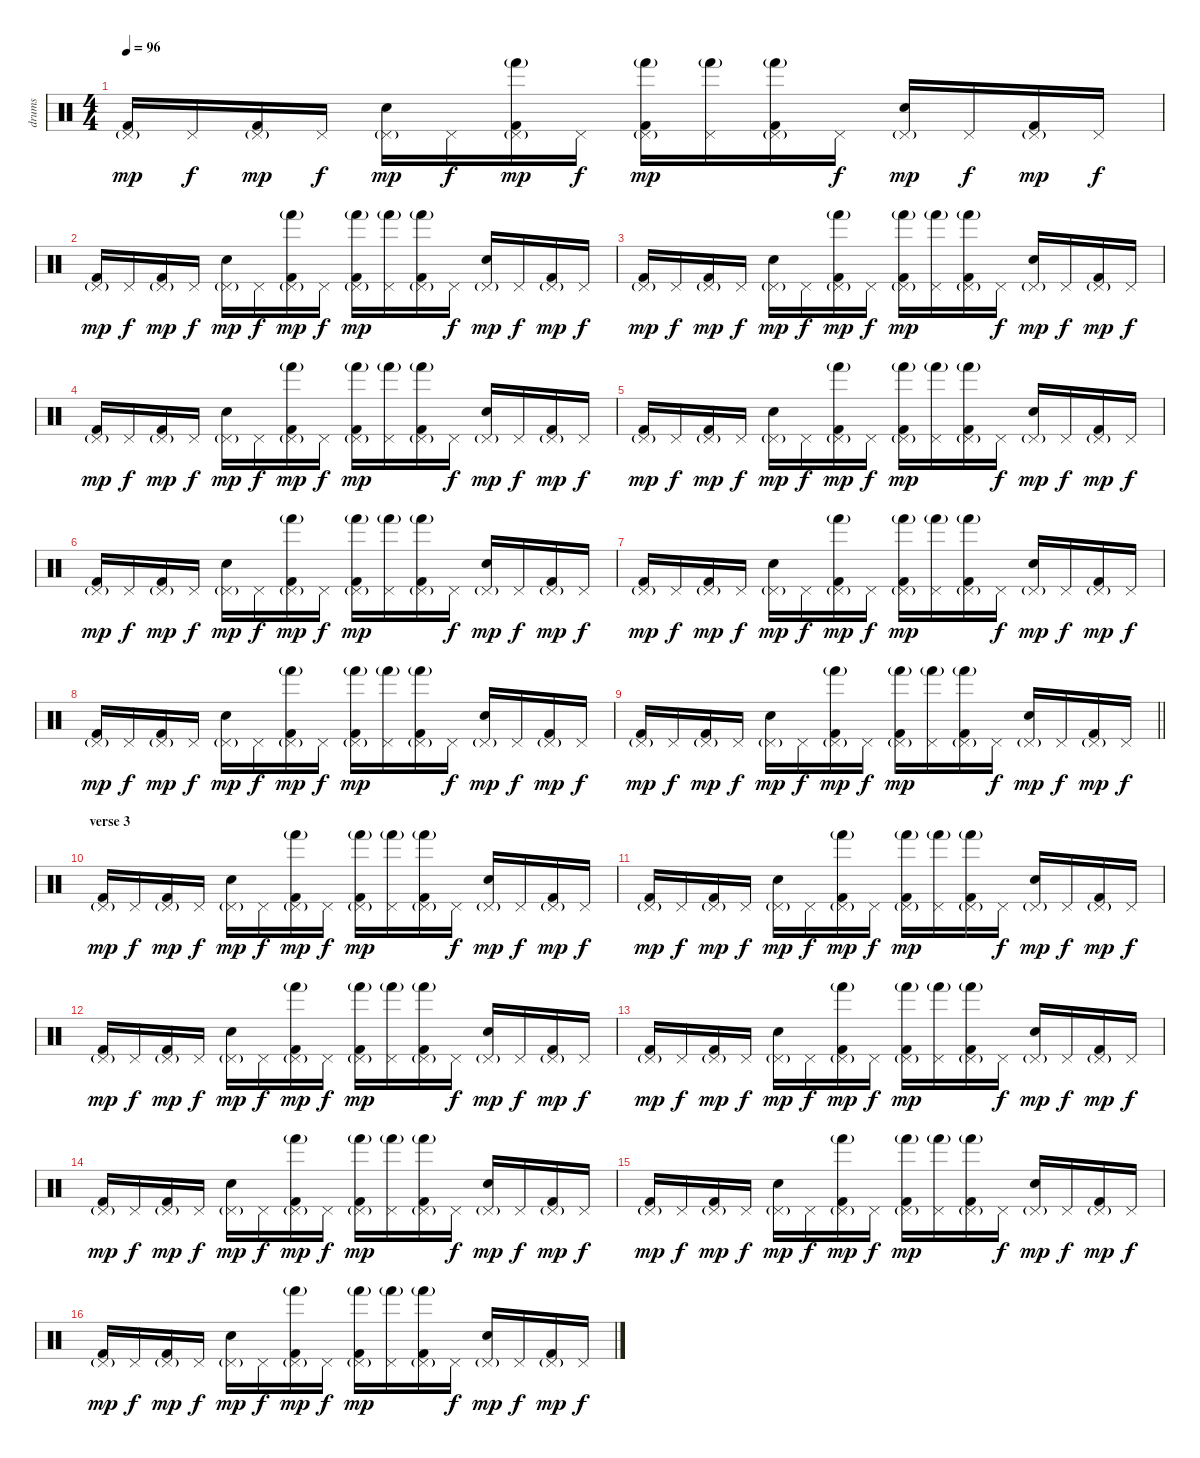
\track ("drums" "drums") {instrument percussion}
\staff {score}
\articulation defaults
\ts (4 4)
\tempo 96
\clef neutral
\ks c
("Kick (hit) 2" "Pedal Hi-Hat (hit)"{g}).16{dy mp} "Pedal Hi-Hat (hit)".16{dy f} ("Kick (hit) 2" "Pedal Hi-Hat (hit)"{g}).16{dy mp} "Pedal Hi-Hat (hit)".16{dy f} ("Snare (hit) 2" "Pedal Hi-Hat (hit)"{g}).16{dy mp} "Pedal Hi-Hat (hit)".16{dy f} ("Kick (hit) 2" "Hand (hit)"{g} "Pedal Hi-Hat (hit)"{g}).16{dy mp} "Pedal Hi-Hat (hit)".16{dy f} ("Kick (hit) 2" "Hand (hit)"{g} "Pedal Hi-Hat (hit)"{g}).16{dy mp} ("Hand (hit)"{g} "Pedal Hi-Hat (hit)").16 ("Kick (hit) 2" "Hand (hit)"{g} "Pedal Hi-Hat (hit)"{g}).16 "Pedal Hi-Hat (hit)".16{dy f} ("Snare (hit) 2" "Pedal Hi-Hat (hit)"{g}).16{dy mp} "Pedal Hi-Hat (hit)".16{dy f} ("Kick (hit) 2" "Pedal Hi-Hat (hit)"{g}).16{dy mp} "Pedal Hi-Hat (hit)".16{dy f} |
("Kick (hit) 2" "Pedal Hi-Hat (hit)"{g}).16{dy mp} "Pedal Hi-Hat (hit)".16{dy f} ("Kick (hit) 2" "Pedal Hi-Hat (hit)"{g}).16{dy mp} "Pedal Hi-Hat (hit)".16{dy f} ("Snare (hit) 2" "Pedal Hi-Hat (hit)"{g}).16{dy mp} "Pedal Hi-Hat (hit)".16{dy f} ("Kick (hit) 2" "Hand (hit)"{g} "Pedal Hi-Hat (hit)"{g}).16{dy mp} "Pedal Hi-Hat (hit)".16{dy f} ("Kick (hit) 2" "Hand (hit)"{g} "Pedal Hi-Hat (hit)"{g}).16{dy mp} ("Hand (hit)"{g} "Pedal Hi-Hat (hit)").16 ("Kick (hit) 2" "Hand (hit)"{g} "Pedal Hi-Hat (hit)"{g}).16 "Pedal Hi-Hat (hit)".16{dy f} ("Snare (hit) 2" "Pedal Hi-Hat (hit)"{g}).16{dy mp} "Pedal Hi-Hat (hit)".16{dy f} ("Kick (hit) 2" "Pedal Hi-Hat (hit)"{g}).16{dy mp} "Pedal Hi-Hat (hit)".16{dy f} |
("Kick (hit) 2" "Pedal Hi-Hat (hit)"{g}).16{dy mp} "Pedal Hi-Hat (hit)".16{dy f} ("Kick (hit) 2" "Pedal Hi-Hat (hit)"{g}).16{dy mp} "Pedal Hi-Hat (hit)".16{dy f} ("Snare (hit) 2" "Pedal Hi-Hat (hit)"{g}).16{dy mp} "Pedal Hi-Hat (hit)".16{dy f} ("Kick (hit) 2" "Hand (hit)"{g} "Pedal Hi-Hat (hit)"{g}).16{dy mp} "Pedal Hi-Hat (hit)".16{dy f} ("Kick (hit) 2" "Hand (hit)"{g} "Pedal Hi-Hat (hit)"{g}).16{dy mp} ("Hand (hit)"{g} "Pedal Hi-Hat (hit)").16 ("Kick (hit) 2" "Hand (hit)"{g} "Pedal Hi-Hat (hit)"{g}).16 "Pedal Hi-Hat (hit)".16{dy f} ("Snare (hit) 2" "Pedal Hi-Hat (hit)"{g}).16{dy mp} "Pedal Hi-Hat (hit)".16{dy f} ("Kick (hit) 2" "Pedal Hi-Hat (hit)"{g}).16{dy mp} "Pedal Hi-Hat (hit)".16{dy f} |
("Kick (hit) 2" "Pedal Hi-Hat (hit)"{g}).16{dy mp} "Pedal Hi-Hat (hit)".16{dy f} ("Kick (hit) 2" "Pedal Hi-Hat (hit)"{g}).16{dy mp} "Pedal Hi-Hat (hit)".16{dy f} ("Snare (hit) 2" "Pedal Hi-Hat (hit)"{g}).16{dy mp} "Pedal Hi-Hat (hit)".16{dy f} ("Kick (hit) 2" "Hand (hit)"{g} "Pedal Hi-Hat (hit)"{g}).16{dy mp} "Pedal Hi-Hat (hit)".16{dy f} ("Kick (hit) 2" "Hand (hit)"{g} "Pedal Hi-Hat (hit)"{g}).16{dy mp} ("Hand (hit)"{g} "Pedal Hi-Hat (hit)").16 ("Kick (hit) 2" "Hand (hit)"{g} "Pedal Hi-Hat (hit)"{g}).16 "Pedal Hi-Hat (hit)".16{dy f} ("Snare (hit) 2" "Pedal Hi-Hat (hit)"{g}).16{dy mp} "Pedal Hi-Hat (hit)".16{dy f} ("Kick (hit) 2" "Pedal Hi-Hat (hit)"{g}).16{dy mp} "Pedal Hi-Hat (hit)".16{dy f} |
("Kick (hit) 2" "Pedal Hi-Hat (hit)"{g}).16{dy mp} "Pedal Hi-Hat (hit)".16{dy f} ("Kick (hit) 2" "Pedal Hi-Hat (hit)"{g}).16{dy mp} "Pedal Hi-Hat (hit)".16{dy f} ("Snare (hit) 2" "Pedal Hi-Hat (hit)"{g}).16{dy mp} "Pedal Hi-Hat (hit)".16{dy f} ("Kick (hit) 2" "Hand (hit)"{g} "Pedal Hi-Hat (hit)"{g}).16{dy mp} "Pedal Hi-Hat (hit)".16{dy f} ("Kick (hit) 2" "Hand (hit)"{g} "Pedal Hi-Hat (hit)"{g}).16{dy mp} ("Hand (hit)"{g} "Pedal Hi-Hat (hit)").16 ("Kick (hit) 2" "Hand (hit)"{g} "Pedal Hi-Hat (hit)"{g}).16 "Pedal Hi-Hat (hit)".16{dy f} ("Snare (hit) 2" "Pedal Hi-Hat (hit)"{g}).16{dy mp} "Pedal Hi-Hat (hit)".16{dy f} ("Kick (hit) 2" "Pedal Hi-Hat (hit)"{g}).16{dy mp} "Pedal Hi-Hat (hit)".16{dy f} |
("Kick (hit) 2" "Pedal Hi-Hat (hit)"{g}).16{dy mp} "Pedal Hi-Hat (hit)".16{dy f} ("Kick (hit) 2" "Pedal Hi-Hat (hit)"{g}).16{dy mp} "Pedal Hi-Hat (hit)".16{dy f} ("Snare (hit) 2" "Pedal Hi-Hat (hit)"{g}).16{dy mp} "Pedal Hi-Hat (hit)".16{dy f} ("Kick (hit) 2" "Hand (hit)"{g} "Pedal Hi-Hat (hit)"{g}).16{dy mp} "Pedal Hi-Hat (hit)".16{dy f} ("Kick (hit) 2" "Hand (hit)"{g} "Pedal Hi-Hat (hit)"{g}).16{dy mp} ("Hand (hit)"{g} "Pedal Hi-Hat (hit)").16 ("Kick (hit) 2" "Hand (hit)"{g} "Pedal Hi-Hat (hit)"{g}).16 "Pedal Hi-Hat (hit)".16{dy f} ("Snare (hit) 2" "Pedal Hi-Hat (hit)"{g}).16{dy mp} "Pedal Hi-Hat (hit)".16{dy f} ("Kick (hit) 2" "Pedal Hi-Hat (hit)"{g}).16{dy mp} "Pedal Hi-Hat (hit)".16{dy f} |
("Kick (hit) 2" "Pedal Hi-Hat (hit)"{g}).16{dy mp} "Pedal Hi-Hat (hit)".16{dy f} ("Kick (hit) 2" "Pedal Hi-Hat (hit)"{g}).16{dy mp} "Pedal Hi-Hat (hit)".16{dy f} ("Snare (hit) 2" "Pedal Hi-Hat (hit)"{g}).16{dy mp} "Pedal Hi-Hat (hit)".16{dy f} ("Kick (hit) 2" "Hand (hit)"{g} "Pedal Hi-Hat (hit)"{g}).16{dy mp} "Pedal Hi-Hat (hit)".16{dy f} ("Kick (hit) 2" "Hand (hit)"{g} "Pedal Hi-Hat (hit)"{g}).16{dy mp} ("Hand (hit)"{g} "Pedal Hi-Hat (hit)").16 ("Kick (hit) 2" "Hand (hit)"{g} "Pedal Hi-Hat (hit)"{g}).16 "Pedal Hi-Hat (hit)".16{dy f} ("Snare (hit) 2" "Pedal Hi-Hat (hit)"{g}).16{dy mp} "Pedal Hi-Hat (hit)".16{dy f} ("Kick (hit) 2" "Pedal Hi-Hat (hit)"{g}).16{dy mp} "Pedal Hi-Hat (hit)".16{dy f} |
("Kick (hit) 2" "Pedal Hi-Hat (hit)"{g}).16{dy mp} "Pedal Hi-Hat (hit)".16{dy f} ("Kick (hit) 2" "Pedal Hi-Hat (hit)"{g}).16{dy mp} "Pedal Hi-Hat (hit)".16{dy f} ("Snare (hit) 2" "Pedal Hi-Hat (hit)"{g}).16{dy mp} "Pedal Hi-Hat (hit)".16{dy f} ("Kick (hit) 2" "Hand (hit)"{g} "Pedal Hi-Hat (hit)"{g}).16{dy mp} "Pedal Hi-Hat (hit)".16{dy f} ("Kick (hit) 2" "Hand (hit)"{g} "Pedal Hi-Hat (hit)"{g}).16{dy mp} ("Hand (hit)"{g} "Pedal Hi-Hat (hit)").16 ("Kick (hit) 2" "Hand (hit)"{g} "Pedal Hi-Hat (hit)"{g}).16 "Pedal Hi-Hat (hit)".16{dy f} ("Snare (hit) 2" "Pedal Hi-Hat (hit)"{g}).16{dy mp} "Pedal Hi-Hat (hit)".16{dy f} ("Kick (hit) 2" "Pedal Hi-Hat (hit)"{g}).16{dy mp} "Pedal Hi-Hat (hit)".16{dy f} |
\barLineRight lightlight
("Kick (hit) 2" "Pedal Hi-Hat (hit)"{g}).16{dy mp} "Pedal Hi-Hat (hit)".16{dy f} ("Kick (hit) 2" "Pedal Hi-Hat (hit)"{g}).16{dy mp} "Pedal Hi-Hat (hit)".16{dy f} ("Snare (hit) 2" "Pedal Hi-Hat (hit)"{g}).16{dy mp} "Pedal Hi-Hat (hit)".16{dy f} ("Kick (hit) 2" "Hand (hit)"{g} "Pedal Hi-Hat (hit)"{g}).16{dy mp} "Pedal Hi-Hat (hit)".16{dy f} ("Kick (hit) 2" "Hand (hit)"{g} "Pedal Hi-Hat (hit)"{g}).16{dy mp} ("Hand (hit)"{g} "Pedal Hi-Hat (hit)").16 ("Kick (hit) 2" "Hand (hit)"{g} "Pedal Hi-Hat (hit)"{g}).16 "Pedal Hi-Hat (hit)".16{dy f} ("Snare (hit) 2" "Pedal Hi-Hat (hit)"{g}).16{dy mp} "Pedal Hi-Hat (hit)".16{dy f} ("Kick (hit) 2" "Pedal Hi-Hat (hit)"{g}).16{dy mp} "Pedal Hi-Hat (hit)".16{dy f} |
\section ("" "verse 3")
("Kick (hit) 2" "Pedal Hi-Hat (hit)"{g}).16{dy mp} "Pedal Hi-Hat (hit)".16{dy f} ("Kick (hit) 2" "Pedal Hi-Hat (hit)"{g}).16{dy mp} "Pedal Hi-Hat (hit)".16{dy f} ("Snare (hit) 2" "Pedal Hi-Hat (hit)"{g}).16{dy mp} "Pedal Hi-Hat (hit)".16{dy f} ("Kick (hit) 2" "Hand (hit)"{g} "Pedal Hi-Hat (hit)"{g}).16{dy mp} "Pedal Hi-Hat (hit)".16{dy f} ("Kick (hit) 2" "Hand (hit)"{g} "Pedal Hi-Hat (hit)"{g}).16{dy mp} ("Hand (hit)"{g} "Pedal Hi-Hat (hit)").16 ("Kick (hit) 2" "Hand (hit)"{g} "Pedal Hi-Hat (hit)"{g}).16 "Pedal Hi-Hat (hit)".16{dy f} ("Snare (hit) 2" "Pedal Hi-Hat (hit)"{g}).16{dy mp} "Pedal Hi-Hat (hit)".16{dy f} ("Kick (hit) 2" "Pedal Hi-Hat (hit)"{g}).16{dy mp} "Pedal Hi-Hat (hit)".16{dy f} |
("Kick (hit) 2" "Pedal Hi-Hat (hit)"{g}).16{dy mp} "Pedal Hi-Hat (hit)".16{dy f} ("Kick (hit) 2" "Pedal Hi-Hat (hit)"{g}).16{dy mp} "Pedal Hi-Hat (hit)".16{dy f} ("Snare (hit) 2" "Pedal Hi-Hat (hit)"{g}).16{dy mp} "Pedal Hi-Hat (hit)".16{dy f} ("Kick (hit) 2" "Hand (hit)"{g} "Pedal Hi-Hat (hit)"{g}).16{dy mp} "Pedal Hi-Hat (hit)".16{dy f} ("Kick (hit) 2" "Hand (hit)"{g} "Pedal Hi-Hat (hit)"{g}).16{dy mp} ("Hand (hit)"{g} "Pedal Hi-Hat (hit)").16 ("Kick (hit) 2" "Hand (hit)"{g} "Pedal Hi-Hat (hit)"{g}).16 "Pedal Hi-Hat (hit)".16{dy f} ("Snare (hit) 2" "Pedal Hi-Hat (hit)"{g}).16{dy mp} "Pedal Hi-Hat (hit)".16{dy f} ("Kick (hit) 2" "Pedal Hi-Hat (hit)"{g}).16{dy mp} "Pedal Hi-Hat (hit)".16{dy f} |
("Kick (hit) 2" "Pedal Hi-Hat (hit)"{g}).16{dy mp} "Pedal Hi-Hat (hit)".16{dy f} ("Kick (hit) 2" "Pedal Hi-Hat (hit)"{g}).16{dy mp} "Pedal Hi-Hat (hit)".16{dy f} ("Snare (hit) 2" "Pedal Hi-Hat (hit)"{g}).16{dy mp} "Pedal Hi-Hat (hit)".16{dy f} ("Kick (hit) 2" "Hand (hit)"{g} "Pedal Hi-Hat (hit)"{g}).16{dy mp} "Pedal Hi-Hat (hit)".16{dy f} ("Kick (hit) 2" "Hand (hit)"{g} "Pedal Hi-Hat (hit)"{g}).16{dy mp} ("Hand (hit)"{g} "Pedal Hi-Hat (hit)").16 ("Kick (hit) 2" "Hand (hit)"{g} "Pedal Hi-Hat (hit)"{g}).16 "Pedal Hi-Hat (hit)".16{dy f} ("Snare (hit) 2" "Pedal Hi-Hat (hit)"{g}).16{dy mp} "Pedal Hi-Hat (hit)".16{dy f} ("Kick (hit) 2" "Pedal Hi-Hat (hit)"{g}).16{dy mp} "Pedal Hi-Hat (hit)".16{dy f} |
("Kick (hit) 2" "Pedal Hi-Hat (hit)"{g}).16{dy mp} "Pedal Hi-Hat (hit)".16{dy f} ("Kick (hit) 2" "Pedal Hi-Hat (hit)"{g}).16{dy mp} "Pedal Hi-Hat (hit)".16{dy f} ("Snare (hit) 2" "Pedal Hi-Hat (hit)"{g}).16{dy mp} "Pedal Hi-Hat (hit)".16{dy f} ("Kick (hit) 2" "Hand (hit)"{g} "Pedal Hi-Hat (hit)"{g}).16{dy mp} "Pedal Hi-Hat (hit)".16{dy f} ("Kick (hit) 2" "Hand (hit)"{g} "Pedal Hi-Hat (hit)"{g}).16{dy mp} ("Hand (hit)"{g} "Pedal Hi-Hat (hit)").16 ("Kick (hit) 2" "Hand (hit)"{g} "Pedal Hi-Hat (hit)"{g}).16 "Pedal Hi-Hat (hit)".16{dy f} ("Snare (hit) 2" "Pedal Hi-Hat (hit)"{g}).16{dy mp} "Pedal Hi-Hat (hit)".16{dy f} ("Kick (hit) 2" "Pedal Hi-Hat (hit)"{g}).16{dy mp} "Pedal Hi-Hat (hit)".16{dy f} |
("Kick (hit) 2" "Pedal Hi-Hat (hit)"{g}).16{dy mp} "Pedal Hi-Hat (hit)".16{dy f} ("Kick (hit) 2" "Pedal Hi-Hat (hit)"{g}).16{dy mp} "Pedal Hi-Hat (hit)".16{dy f} ("Snare (hit) 2" "Pedal Hi-Hat (hit)"{g}).16{dy mp} "Pedal Hi-Hat (hit)".16{dy f} ("Kick (hit) 2" "Hand (hit)"{g} "Pedal Hi-Hat (hit)"{g}).16{dy mp} "Pedal Hi-Hat (hit)".16{dy f} ("Kick (hit) 2" "Hand (hit)"{g} "Pedal Hi-Hat (hit)"{g}).16{dy mp} ("Hand (hit)"{g} "Pedal Hi-Hat (hit)").16 ("Kick (hit) 2" "Hand (hit)"{g} "Pedal Hi-Hat (hit)"{g}).16 "Pedal Hi-Hat (hit)".16{dy f} ("Snare (hit) 2" "Pedal Hi-Hat (hit)"{g}).16{dy mp} "Pedal Hi-Hat (hit)".16{dy f} ("Kick (hit) 2" "Pedal Hi-Hat (hit)"{g}).16{dy mp} "Pedal Hi-Hat (hit)".16{dy f} |
("Kick (hit) 2" "Pedal Hi-Hat (hit)"{g}).16{dy mp} "Pedal Hi-Hat (hit)".16{dy f} ("Kick (hit) 2" "Pedal Hi-Hat (hit)"{g}).16{dy mp} "Pedal Hi-Hat (hit)".16{dy f} ("Snare (hit) 2" "Pedal Hi-Hat (hit)"{g}).16{dy mp} "Pedal Hi-Hat (hit)".16{dy f} ("Kick (hit) 2" "Hand (hit)"{g} "Pedal Hi-Hat (hit)"{g}).16{dy mp} "Pedal Hi-Hat (hit)".16{dy f} ("Kick (hit) 2" "Hand (hit)"{g} "Pedal Hi-Hat (hit)"{g}).16{dy mp} ("Hand (hit)"{g} "Pedal Hi-Hat (hit)").16 ("Kick (hit) 2" "Hand (hit)"{g} "Pedal Hi-Hat (hit)"{g}).16 "Pedal Hi-Hat (hit)".16{dy f} ("Snare (hit) 2" "Pedal Hi-Hat (hit)"{g}).16{dy mp} "Pedal Hi-Hat (hit)".16{dy f} ("Kick (hit) 2" "Pedal Hi-Hat (hit)"{g}).16{dy mp} "Pedal Hi-Hat (hit)".16{dy f} |
("Kick (hit) 2" "Pedal Hi-Hat (hit)"{g}).16{dy mp} "Pedal Hi-Hat (hit)".16{dy f} ("Kick (hit) 2" "Pedal Hi-Hat (hit)"{g}).16{dy mp} "Pedal Hi-Hat (hit)".16{dy f} ("Snare (hit) 2" "Pedal Hi-Hat (hit)"{g}).16{dy mp} "Pedal Hi-Hat (hit)".16{dy f} ("Kick (hit) 2" "Hand (hit)"{g} "Pedal Hi-Hat (hit)"{g}).16{dy mp} "Pedal Hi-Hat (hit)".16{dy f} ("Kick (hit) 2" "Hand (hit)"{g} "Pedal Hi-Hat (hit)"{g}).16{dy mp} ("Hand (hit)"{g} "Pedal Hi-Hat (hit)").16 ("Kick (hit) 2" "Hand (hit)"{g} "Pedal Hi-Hat (hit)"{g}).16 "Pedal Hi-Hat (hit)".16{dy f} ("Snare (hit) 2" "Pedal Hi-Hat (hit)"{g}).16{dy mp} "Pedal Hi-Hat (hit)".16{dy f} ("Kick (hit) 2" "Pedal Hi-Hat (hit)"{g}).16{dy mp} "Pedal Hi-Hat (hit)".16{dy f}
